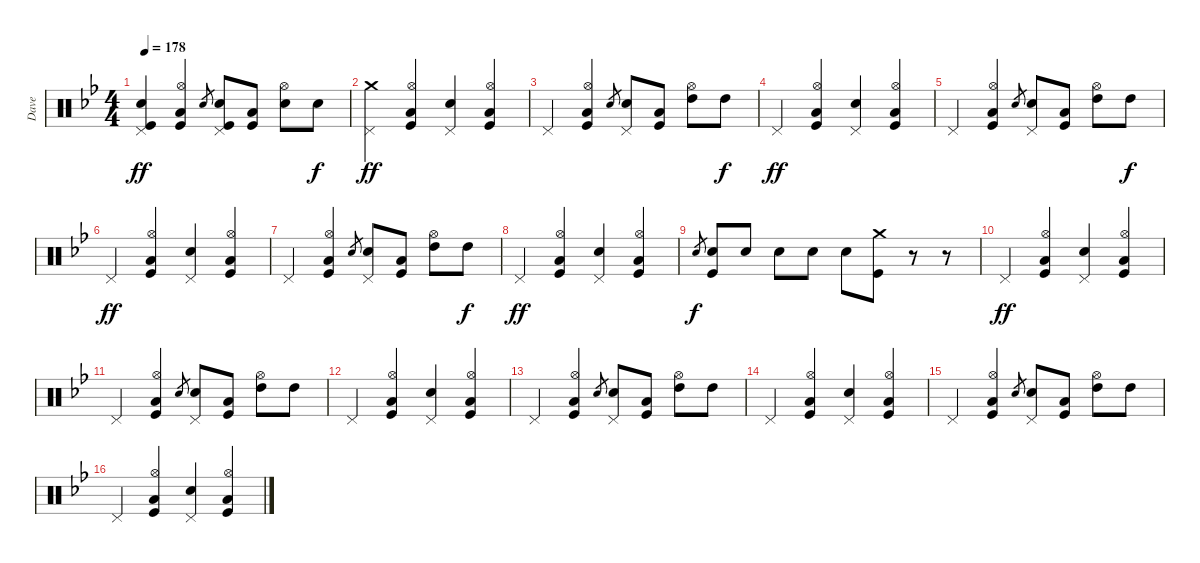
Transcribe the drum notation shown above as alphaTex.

\track ("Dave" "Dave") {instrument percussion}
\staff {score}
\articulation defaults
\ts (4 4)
\tempo 178
\clef neutral
\ks gminor
("Pedal Hi-Hat (hit)" "Snare (hit) 2" "Kick (hit)").4{dy ff} ("Hi-Hat (open)" "Low Floor Tom (hit)" "Kick (hit)").4 "Snare (hit) 2".8{gr} ("Pedal Hi-Hat (hit)" "Snare (hit) 2" "Kick (hit)").8 ("Low Floor Tom (hit)" "Kick (hit)").8 ("Hi-Hat (open)" "Snare (hit) 2").8 "Snare (hit) 2".8{dy f} |
("Crash medium (hit)" "Pedal Hi-Hat (hit)").4{dy ff} ("Hi-Hat (open)" "Low Floor Tom (hit)" "Kick (hit)").4 ("Pedal Hi-Hat (hit)" "Snare (hit) 2").4 ("Hi-Hat (open)" "Low Floor Tom (hit)" "Kick (hit)").4 |
"Pedal Hi-Hat (hit)".4 ("Hi-Hat (open)" "Low Floor Tom (hit)" "Kick (hit)").4 "Snare (hit) 2".8{gr} ("Pedal Hi-Hat (hit)" "Snare (hit) 2").8 ("Low Floor Tom (hit)" "Kick (hit)").8 ("High Tom (hit)" "Hi-Hat (open)").8 "High Tom (hit)".8{dy f} |
"Pedal Hi-Hat (hit)".4{dy ff} ("Hi-Hat (open)" "Low Floor Tom (hit)" "Kick (hit)").4 ("Pedal Hi-Hat (hit)" "Snare (hit) 2").4 ("Hi-Hat (open)" "Low Floor Tom (hit)" "Kick (hit)").4 |
"Pedal Hi-Hat (hit)".4 ("Hi-Hat (open)" "Low Floor Tom (hit)" "Kick (hit)").4 "Snare (hit) 2".8{gr} ("Pedal Hi-Hat (hit)" "Snare (hit) 2").8 ("Low Floor Tom (hit)" "Kick (hit)").8 ("High Tom (hit)" "Hi-Hat (open)").8 "High Tom (hit)".8{dy f} |
"Pedal Hi-Hat (hit)".4{dy ff} ("Hi-Hat (open)" "Low Floor Tom (hit)" "Kick (hit)").4 ("Pedal Hi-Hat (hit)" "Snare (hit) 2").4 ("Hi-Hat (open)" "Low Floor Tom (hit)" "Kick (hit)").4 |
"Pedal Hi-Hat (hit)".4 ("Hi-Hat (open)" "Low Floor Tom (hit)" "Kick (hit)").4 "Snare (hit) 2".8{gr} ("Pedal Hi-Hat (hit)" "Snare (hit) 2").8 ("Low Floor Tom (hit)" "Kick (hit)").8 ("High Tom (hit)" "Hi-Hat (open)").8 "High Tom (hit)".8{dy f} |
"Pedal Hi-Hat (hit)".4{dy ff} ("Hi-Hat (open)" "Low Floor Tom (hit)" "Kick (hit)").4 ("Pedal Hi-Hat (hit)" "Snare (hit) 2").4 ("Hi-Hat (open)" "Low Floor Tom (hit)" "Kick (hit)").4 |
"Snare (hit) 2".8{gr dy f} ("Snare (hit) 2" "Kick (hit)").8 "Snare (hit) 2".8 "Snare (hit) 2".8 "Snare (hit) 2".8 "Snare (hit) 2".8 ("Crash medium (hit)" "Kick (hit)").8 r.8 r.8 |
"Pedal Hi-Hat (hit)".4{dy ff} ("Hi-Hat (open)" "Low Floor Tom (hit)" "Kick (hit)").4 ("Pedal Hi-Hat (hit)" "Snare (hit) 2").4 ("Hi-Hat (open)" "Low Floor Tom (hit)" "Kick (hit)").4 |
"Pedal Hi-Hat (hit)".4 ("Hi-Hat (open)" "Low Floor Tom (hit)" "Kick (hit)").4 "Snare (hit) 2".8{gr} ("Pedal Hi-Hat (hit)" "Snare (hit) 2").8 ("Low Floor Tom (hit)" "Kick (hit)").8 ("High Tom (hit)" "Hi-Hat (open)").8 "High Tom (hit)".8 |
"Pedal Hi-Hat (hit)".4 ("Hi-Hat (open)" "Low Floor Tom (hit)" "Kick (hit)").4 ("Pedal Hi-Hat (hit)" "Snare (hit) 2").4 ("Hi-Hat (open)" "Low Floor Tom (hit)" "Kick (hit)").4 |
"Pedal Hi-Hat (hit)".4 ("Hi-Hat (open)" "Low Floor Tom (hit)" "Kick (hit)").4 "Snare (hit) 2".8{gr} ("Pedal Hi-Hat (hit)" "Snare (hit) 2").8 ("Low Floor Tom (hit)" "Kick (hit)").8 ("High Tom (hit)" "Hi-Hat (open)").8 "High Tom (hit)".8 |
"Pedal Hi-Hat (hit)".4 ("Hi-Hat (open)" "Low Floor Tom (hit)" "Kick (hit)").4 ("Pedal Hi-Hat (hit)" "Snare (hit) 2").4 ("Hi-Hat (open)" "Low Floor Tom (hit)" "Kick (hit)").4 |
"Pedal Hi-Hat (hit)".4 ("Hi-Hat (open)" "Low Floor Tom (hit)" "Kick (hit)").4 "Snare (hit) 2".8{gr} ("Pedal Hi-Hat (hit)" "Snare (hit) 2").8 ("Low Floor Tom (hit)" "Kick (hit)").8 ("High Tom (hit)" "Hi-Hat (open)").8 "High Tom (hit)".8 |
"Pedal Hi-Hat (hit)".4 ("Hi-Hat (open)" "Low Floor Tom (hit)" "Kick (hit)").4 ("Pedal Hi-Hat (hit)" "Snare (hit) 2").4 ("Hi-Hat (open)" "Low Floor Tom (hit)" "Kick (hit)").4
